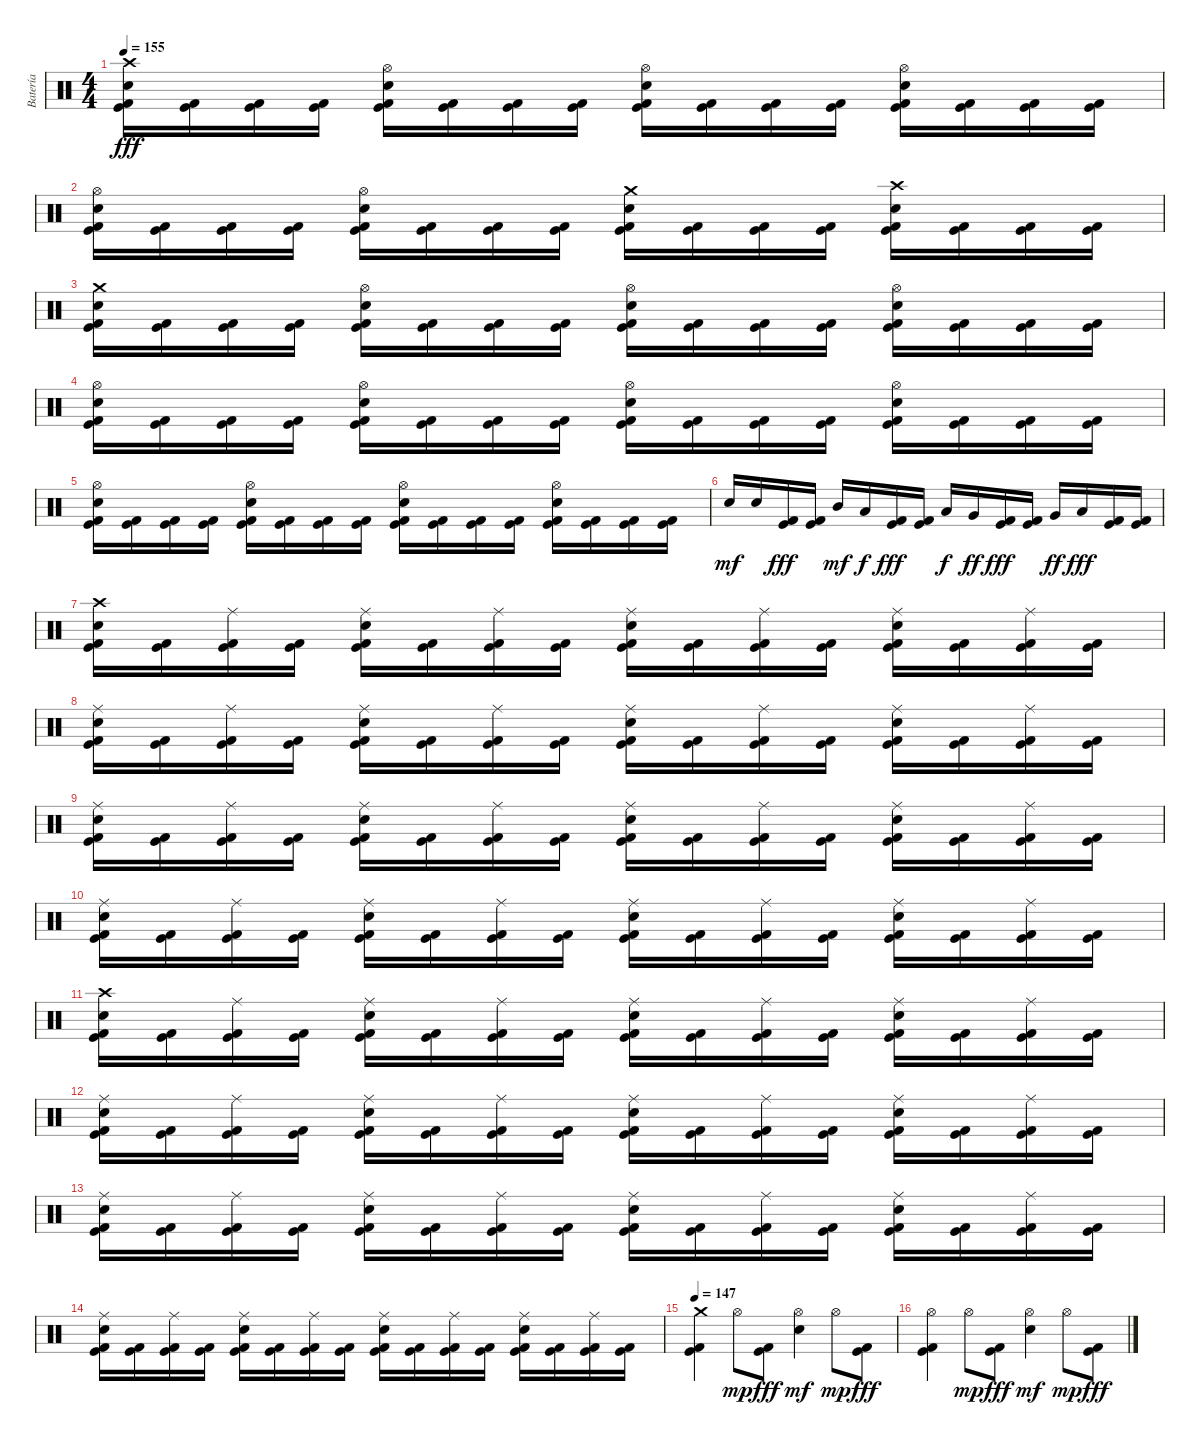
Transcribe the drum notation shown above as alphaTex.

\track ("Batería" "Batería") {instrument percussion}
\staff {score}
\articulation defaults
\ts (4 4)
\tempo 155
\clef neutral
\ks c
("Crash high (hit)" "Electric Snare (hit)" "Kick (hit) 2" "Kick (hit)").16{dy fff} ("Kick (hit) 2" "Kick (hit)").16 ("Kick (hit) 2" "Kick (hit)").16 ("Kick (hit) 2" "Kick (hit)").16 ("Hi-Hat (open)" "Electric Snare (hit)" "Kick (hit) 2" "Kick (hit)").16 ("Kick (hit) 2" "Kick (hit)").16 ("Kick (hit) 2" "Kick (hit)").16 ("Kick (hit) 2" "Kick (hit)").16 ("Hi-Hat (open)" "Electric Snare (hit)" "Kick (hit) 2" "Kick (hit)").16 ("Kick (hit) 2" "Kick (hit)").16 ("Kick (hit) 2" "Kick (hit)").16 ("Kick (hit) 2" "Kick (hit)").16 ("Hi-Hat (open)" "Electric Snare (hit)" "Kick (hit) 2" "Kick (hit)").16 ("Kick (hit) 2" "Kick (hit)").16 ("Kick (hit) 2" "Kick (hit)").16 ("Kick (hit) 2" "Kick (hit)").16 |
("Hi-Hat (open)" "Electric Snare (hit)" "Kick (hit) 2" "Kick (hit)").16 ("Kick (hit) 2" "Kick (hit)").16 ("Kick (hit) 2" "Kick (hit)").16 ("Kick (hit) 2" "Kick (hit)").16 ("Hi-Hat (open)" "Electric Snare (hit)" "Kick (hit) 2" "Kick (hit)").16 ("Kick (hit) 2" "Kick (hit)").16 ("Kick (hit) 2" "Kick (hit)").16 ("Kick (hit) 2" "Kick (hit)").16 ("Crash medium (hit)" "Electric Snare (hit)" "Kick (hit) 2" "Kick (hit)").16 ("Kick (hit) 2" "Kick (hit)").16 ("Kick (hit) 2" "Kick (hit)").16 ("Kick (hit) 2" "Kick (hit)").16 ("Crash high (hit)" "Electric Snare (hit)" "Kick (hit) 2" "Kick (hit)").16 ("Kick (hit) 2" "Kick (hit)").16 ("Kick (hit) 2" "Kick (hit)").16 ("Kick (hit) 2" "Kick (hit)").16 |
("Crash medium (hit)" "Electric Snare (hit)" "Kick (hit) 2" "Kick (hit)").16 ("Kick (hit) 2" "Kick (hit)").16 ("Kick (hit) 2" "Kick (hit)").16 ("Kick (hit) 2" "Kick (hit)").16 ("Hi-Hat (open)" "Electric Snare (hit)" "Kick (hit) 2" "Kick (hit)").16 ("Kick (hit) 2" "Kick (hit)").16 ("Kick (hit) 2" "Kick (hit)").16 ("Kick (hit) 2" "Kick (hit)").16 ("Hi-Hat (open)" "Electric Snare (hit)" "Kick (hit) 2" "Kick (hit)").16 ("Kick (hit) 2" "Kick (hit)").16 ("Kick (hit) 2" "Kick (hit)").16 ("Kick (hit) 2" "Kick (hit)").16 ("Hi-Hat (open)" "Electric Snare (hit)" "Kick (hit) 2" "Kick (hit)").16 ("Kick (hit) 2" "Kick (hit)").16 ("Kick (hit) 2" "Kick (hit)").16 ("Kick (hit) 2" "Kick (hit)").16 |
("Hi-Hat (open)" "Electric Snare (hit)" "Kick (hit) 2" "Kick (hit)").16 ("Kick (hit) 2" "Kick (hit)").16 ("Kick (hit) 2" "Kick (hit)").16 ("Kick (hit) 2" "Kick (hit)").16 ("Hi-Hat (open)" "Electric Snare (hit)" "Kick (hit) 2" "Kick (hit)").16 ("Kick (hit) 2" "Kick (hit)").16 ("Kick (hit) 2" "Kick (hit)").16 ("Kick (hit) 2" "Kick (hit)").16 ("Hi-Hat (open)" "Electric Snare (hit)" "Kick (hit) 2" "Kick (hit)").16 ("Kick (hit) 2" "Kick (hit)").16 ("Kick (hit) 2" "Kick (hit)").16 ("Kick (hit) 2" "Kick (hit)").16 ("Hi-Hat (open)" "Electric Snare (hit)" "Kick (hit) 2" "Kick (hit)").16 ("Kick (hit) 2" "Kick (hit)").16 ("Kick (hit) 2" "Kick (hit)").16 ("Kick (hit) 2" "Kick (hit)").16 |
("Hi-Hat (open)" "Electric Snare (hit)" "Kick (hit) 2" "Kick (hit)").16 ("Kick (hit) 2" "Kick (hit)").16 ("Kick (hit) 2" "Kick (hit)").16 ("Kick (hit) 2" "Kick (hit)").16 ("Hi-Hat (open)" "Electric Snare (hit)" "Kick (hit) 2" "Kick (hit)").16 ("Kick (hit) 2" "Kick (hit)").16 ("Kick (hit) 2" "Kick (hit)").16 ("Kick (hit) 2" "Kick (hit)").16 ("Hi-Hat (open)" "Electric Snare (hit)" "Kick (hit) 2" "Kick (hit)").16 ("Kick (hit) 2" "Kick (hit)").16 ("Kick (hit) 2" "Kick (hit)").16 ("Kick (hit) 2" "Kick (hit)").16 ("Hi-Hat (open)" "Electric Snare (hit)" "Kick (hit) 2" "Kick (hit)").16 ("Kick (hit) 2" "Kick (hit)").16 ("Kick (hit) 2" "Kick (hit)").16 ("Kick (hit) 2" "Kick (hit)").16 |
"Electric Snare (hit)".16{dy mf} "Electric Snare (hit)".16 ("Kick (hit) 2" "Kick (hit)").16{dy fff} ("Kick (hit) 2" "Kick (hit)").16 "Mid Tom (hit)".16{dy mf} "Low Tom (hit)".16{dy f} ("Kick (hit) 2" "Kick (hit)").16{dy fff} ("Kick (hit) 2" "Kick (hit)").16 "Low Tom (hit)".16{dy f} "Very Low Tom (hit)".16{dy ff} ("Kick (hit) 2" "Kick (hit)").16{dy fff} ("Kick (hit) 2" "Kick (hit)").16 "Very Low Tom (hit)".16{dy ff} "Low Floor Tom (hit)".16{dy fff} ("Kick (hit) 2" "Kick (hit)").16 ("Kick (hit) 2" "Kick (hit)").16 |
("Crash high (hit)" "Electric Snare (hit)" "Kick (hit) 2" "Kick (hit)").16 ("Kick (hit) 2" "Kick (hit)").16 ("Ride (middle)" "Kick (hit) 2" "Kick (hit)").16 ("Kick (hit) 2" "Kick (hit)").16 ("Ride (middle)" "Electric Snare (hit)" "Kick (hit) 2" "Kick (hit)").16 ("Kick (hit) 2" "Kick (hit)").16 ("Ride (middle)" "Kick (hit) 2" "Kick (hit)").16 ("Kick (hit) 2" "Kick (hit)").16 ("Ride (middle)" "Electric Snare (hit)" "Kick (hit) 2" "Kick (hit)").16 ("Kick (hit) 2" "Kick (hit)").16 ("Ride (middle)" "Kick (hit) 2" "Kick (hit)").16 ("Kick (hit) 2" "Kick (hit)").16 ("Ride (middle)" "Electric Snare (hit)" "Kick (hit) 2" "Kick (hit)").16 ("Kick (hit) 2" "Kick (hit)").16 ("Ride (middle)" "Kick (hit) 2" "Kick (hit)").16 ("Kick (hit) 2" "Kick (hit)").16 |
("Ride (middle)" "Electric Snare (hit)" "Kick (hit) 2" "Kick (hit)").16 ("Kick (hit) 2" "Kick (hit)").16 ("Ride (middle)" "Kick (hit) 2" "Kick (hit)").16 ("Kick (hit) 2" "Kick (hit)").16 ("Ride (middle)" "Electric Snare (hit)" "Kick (hit) 2" "Kick (hit)").16 ("Kick (hit) 2" "Kick (hit)").16 ("Ride (middle)" "Kick (hit) 2" "Kick (hit)").16 ("Kick (hit) 2" "Kick (hit)").16 ("Ride (middle)" "Electric Snare (hit)" "Kick (hit) 2" "Kick (hit)").16 ("Kick (hit) 2" "Kick (hit)").16 ("Ride (middle)" "Kick (hit) 2" "Kick (hit)").16 ("Kick (hit) 2" "Kick (hit)").16 ("Ride (middle)" "Electric Snare (hit)" "Kick (hit) 2" "Kick (hit)").16 ("Kick (hit) 2" "Kick (hit)").16 ("Ride (middle)" "Kick (hit) 2" "Kick (hit)").16 ("Kick (hit) 2" "Kick (hit)").16 |
("Ride (middle)" "Electric Snare (hit)" "Kick (hit) 2" "Kick (hit)").16 ("Kick (hit) 2" "Kick (hit)").16 ("Ride (middle)" "Kick (hit) 2" "Kick (hit)").16 ("Kick (hit) 2" "Kick (hit)").16 ("Ride (middle)" "Electric Snare (hit)" "Kick (hit) 2" "Kick (hit)").16 ("Kick (hit) 2" "Kick (hit)").16 ("Ride (middle)" "Kick (hit) 2" "Kick (hit)").16 ("Kick (hit) 2" "Kick (hit)").16 ("Ride (middle)" "Electric Snare (hit)" "Kick (hit) 2" "Kick (hit)").16 ("Kick (hit) 2" "Kick (hit)").16 ("Ride (middle)" "Kick (hit) 2" "Kick (hit)").16 ("Kick (hit) 2" "Kick (hit)").16 ("Ride (middle)" "Electric Snare (hit)" "Kick (hit) 2" "Kick (hit)").16 ("Kick (hit) 2" "Kick (hit)").16 ("Ride (middle)" "Kick (hit) 2" "Kick (hit)").16 ("Kick (hit) 2" "Kick (hit)").16 |
("Ride (middle)" "Electric Snare (hit)" "Kick (hit) 2" "Kick (hit)").16 ("Kick (hit) 2" "Kick (hit)").16 ("Ride (middle)" "Kick (hit) 2" "Kick (hit)").16 ("Kick (hit) 2" "Kick (hit)").16 ("Ride (middle)" "Electric Snare (hit)" "Kick (hit) 2" "Kick (hit)").16 ("Kick (hit) 2" "Kick (hit)").16 ("Ride (middle)" "Kick (hit) 2" "Kick (hit)").16 ("Kick (hit) 2" "Kick (hit)").16 ("Ride (middle)" "Electric Snare (hit)" "Kick (hit) 2" "Kick (hit)").16 ("Kick (hit) 2" "Kick (hit)").16 ("Ride (middle)" "Kick (hit) 2" "Kick (hit)").16 ("Kick (hit) 2" "Kick (hit)").16 ("Ride (middle)" "Electric Snare (hit)" "Kick (hit) 2" "Kick (hit)").16 ("Kick (hit) 2" "Kick (hit)").16 ("Ride (middle)" "Kick (hit) 2" "Kick (hit)").16 ("Kick (hit) 2" "Kick (hit)").16 |
("Crash high (hit)" "Electric Snare (hit)" "Kick (hit) 2" "Kick (hit)").16 ("Kick (hit) 2" "Kick (hit)").16 ("Ride (middle)" "Kick (hit) 2" "Kick (hit)").16 ("Kick (hit) 2" "Kick (hit)").16 ("Ride (middle)" "Electric Snare (hit)" "Kick (hit) 2" "Kick (hit)").16 ("Kick (hit) 2" "Kick (hit)").16 ("Ride (middle)" "Kick (hit) 2" "Kick (hit)").16 ("Kick (hit) 2" "Kick (hit)").16 ("Ride (middle)" "Electric Snare (hit)" "Kick (hit) 2" "Kick (hit)").16 ("Kick (hit) 2" "Kick (hit)").16 ("Ride (middle)" "Kick (hit) 2" "Kick (hit)").16 ("Kick (hit) 2" "Kick (hit)").16 ("Ride (middle)" "Electric Snare (hit)" "Kick (hit) 2" "Kick (hit)").16 ("Kick (hit) 2" "Kick (hit)").16 ("Ride (middle)" "Kick (hit) 2" "Kick (hit)").16 ("Kick (hit) 2" "Kick (hit)").16 |
("Ride (middle)" "Electric Snare (hit)" "Kick (hit) 2" "Kick (hit)").16 ("Kick (hit) 2" "Kick (hit)").16 ("Ride (middle)" "Kick (hit) 2" "Kick (hit)").16 ("Kick (hit) 2" "Kick (hit)").16 ("Ride (middle)" "Electric Snare (hit)" "Kick (hit) 2" "Kick (hit)").16 ("Kick (hit) 2" "Kick (hit)").16 ("Ride (middle)" "Kick (hit) 2" "Kick (hit)").16 ("Kick (hit) 2" "Kick (hit)").16 ("Ride (middle)" "Electric Snare (hit)" "Kick (hit) 2" "Kick (hit)").16 ("Kick (hit) 2" "Kick (hit)").16 ("Ride (middle)" "Kick (hit) 2" "Kick (hit)").16 ("Kick (hit) 2" "Kick (hit)").16 ("Ride (middle)" "Electric Snare (hit)" "Kick (hit) 2" "Kick (hit)").16 ("Kick (hit) 2" "Kick (hit)").16 ("Ride (middle)" "Kick (hit) 2" "Kick (hit)").16 ("Kick (hit) 2" "Kick (hit)").16 |
("Ride (middle)" "Electric Snare (hit)" "Kick (hit) 2" "Kick (hit)").16 ("Kick (hit) 2" "Kick (hit)").16 ("Ride (middle)" "Kick (hit) 2" "Kick (hit)").16 ("Kick (hit) 2" "Kick (hit)").16 ("Ride (middle)" "Electric Snare (hit)" "Kick (hit) 2" "Kick (hit)").16 ("Kick (hit) 2" "Kick (hit)").16 ("Ride (middle)" "Kick (hit) 2" "Kick (hit)").16 ("Kick (hit) 2" "Kick (hit)").16 ("Ride (middle)" "Electric Snare (hit)" "Kick (hit) 2" "Kick (hit)").16 ("Kick (hit) 2" "Kick (hit)").16 ("Ride (middle)" "Kick (hit) 2" "Kick (hit)").16 ("Kick (hit) 2" "Kick (hit)").16 ("Ride (middle)" "Electric Snare (hit)" "Kick (hit) 2" "Kick (hit)").16 ("Kick (hit) 2" "Kick (hit)").16 ("Ride (middle)" "Kick (hit) 2" "Kick (hit)").16 ("Kick (hit) 2" "Kick (hit)").16 |
("Ride (middle)" "Electric Snare (hit)" "Kick (hit) 2" "Kick (hit)").16 ("Kick (hit) 2" "Kick (hit)").16 ("Ride (middle)" "Kick (hit) 2" "Kick (hit)").16 ("Kick (hit) 2" "Kick (hit)").16 ("Ride (middle)" "Electric Snare (hit)" "Kick (hit) 2" "Kick (hit)").16 ("Kick (hit) 2" "Kick (hit)").16 ("Ride (middle)" "Kick (hit) 2" "Kick (hit)").16 ("Kick (hit) 2" "Kick (hit)").16 ("Ride (middle)" "Electric Snare (hit)" "Kick (hit) 2" "Kick (hit)").16 ("Kick (hit) 2" "Kick (hit)").16 ("Ride (middle)" "Kick (hit) 2" "Kick (hit)").16 ("Kick (hit) 2" "Kick (hit)").16 ("Ride (middle)" "Electric Snare (hit)" "Kick (hit) 2" "Kick (hit)").16 ("Kick (hit) 2" "Kick (hit)").16 ("Ride (middle)" "Kick (hit) 2" "Kick (hit)").16 ("Kick (hit) 2" "Kick (hit)").16 |
\tempo 147
("Crash medium (hit)" "Kick (hit) 2" "Kick (hit)").4 "Hi-Hat (open)".8{dy mp} ("Kick (hit) 2" "Kick (hit)").8{dy fff} ("Hi-Hat (open)" "Electric Snare (hit)").4{dy mf} "Hi-Hat (open)".8{dy mp} ("Kick (hit) 2" "Kick (hit)").8{dy fff} |
("Hi-Hat (open)" "Kick (hit) 2" "Kick (hit)").4 "Hi-Hat (open)".8{dy mp} ("Kick (hit) 2" "Kick (hit)").8{dy fff} ("Hi-Hat (open)" "Electric Snare (hit)").4{dy mf} "Hi-Hat (open)".8{dy mp} ("Kick (hit) 2" "Kick (hit)").8{dy fff}
